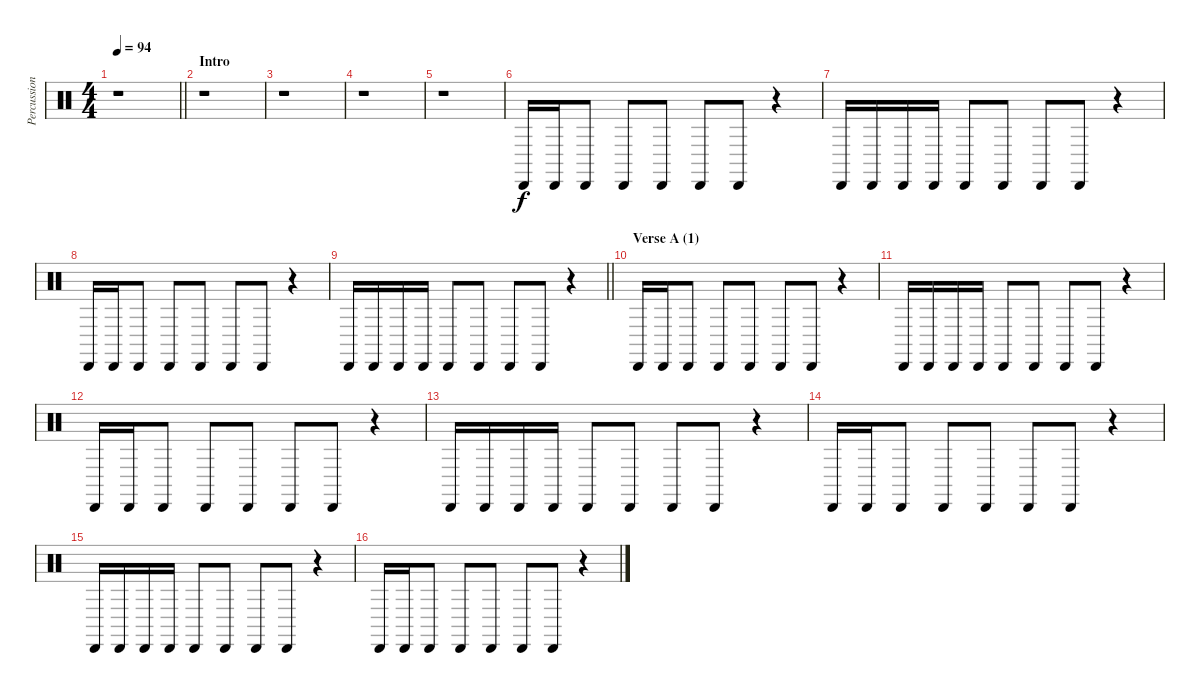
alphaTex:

\track ("Percussion" "Percussion") {instrument percussion}
\staff {score}
\articulation defaults
\ts (4 4)
\tempo 94
\clef neutral
\barLineRight lightlight
\ks aminor
r.1{dy f} |
\section ("" "Intro")
r.1 |
r.1 |
r.1 |
r.1 |
"Cabasa (hit)".16 "Cabasa (hit)".16 "Cabasa (hit)".8 "Cabasa (hit)".8 "Cabasa (hit)".8 "Cabasa (hit)".8 "Cabasa (hit)".8 r.4 |
"Cabasa (hit)".16 "Cabasa (hit)".16 "Cabasa (hit)".16 "Cabasa (hit)".16 "Cabasa (hit)".8 "Cabasa (hit)".8 "Cabasa (hit)".8 "Cabasa (hit)".8 r.4 |
"Cabasa (hit)".16 "Cabasa (hit)".16 "Cabasa (hit)".8 "Cabasa (hit)".8 "Cabasa (hit)".8 "Cabasa (hit)".8 "Cabasa (hit)".8 r.4 |
\barLineRight lightlight "Cabasa (hit)".16 "Cabasa (hit)".16 "Cabasa (hit)".16 "Cabasa (hit)".16 "Cabasa (hit)".8 "Cabasa (hit)".8 "Cabasa (hit)".8 "Cabasa (hit)".8
r.4 |
\section ("" "Verse A (1)")
"Cabasa (hit)".16 "Cabasa (hit)".16 "Cabasa (hit)".8 "Cabasa (hit)".8 "Cabasa (hit)".8 "Cabasa (hit)".8 "Cabasa (hit)".8 r.4 |
"Cabasa (hit)".16 "Cabasa (hit)".16 "Cabasa (hit)".16 "Cabasa (hit)".16 "Cabasa (hit)".8 "Cabasa (hit)".8 "Cabasa (hit)".8 "Cabasa (hit)".8 r.4 |
"Cabasa (hit)".16 "Cabasa (hit)".16 "Cabasa (hit)".8 "Cabasa (hit)".8 "Cabasa (hit)".8 "Cabasa (hit)".8 "Cabasa (hit)".8 r.4 |
"Cabasa (hit)".16 "Cabasa (hit)".16 "Cabasa (hit)".16 "Cabasa (hit)".16 "Cabasa (hit)".8 "Cabasa (hit)".8 "Cabasa (hit)".8 "Cabasa (hit)".8 r.4 |
"Cabasa (hit)".16 "Cabasa (hit)".16 "Cabasa (hit)".8 "Cabasa (hit)".8 "Cabasa (hit)".8 "Cabasa (hit)".8 "Cabasa (hit)".8 r.4 |
"Cabasa (hit)".16 "Cabasa (hit)".16 "Cabasa (hit)".16 "Cabasa (hit)".16 "Cabasa (hit)".8 "Cabasa (hit)".8 "Cabasa (hit)".8 "Cabasa (hit)".8 r.4 |
"Cabasa (hit)".16 "Cabasa (hit)".16 "Cabasa (hit)".8 "Cabasa (hit)".8 "Cabasa (hit)".8 "Cabasa (hit)".8 "Cabasa (hit)".8 r.4
